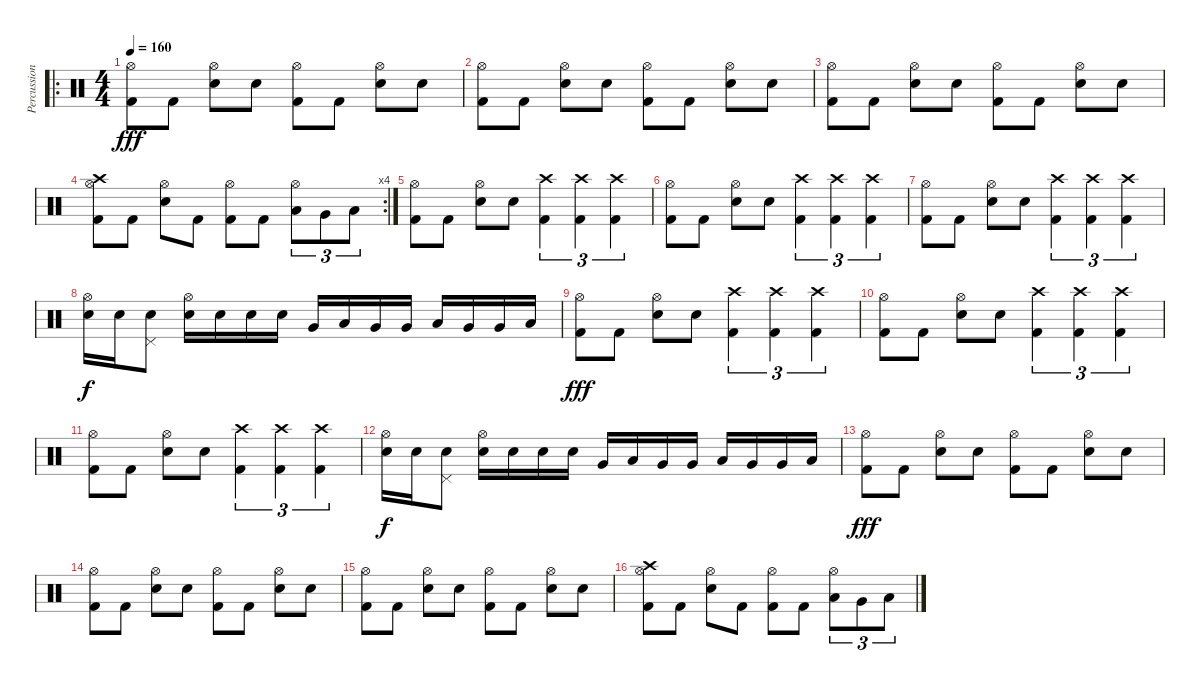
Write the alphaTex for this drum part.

\track ("Percussion" "Percussion") {instrument percussion}
\staff {score}
\articulation defaults
\ro
\ts (4 4)
\tempo 160
\clef neutral
\ks c
("Kick (hit) 2" "Hi-Hat (open)").8{dy fff} "Kick (hit) 2".8 ("Snare (hit) 2" "Hi-Hat (open)").8 "Snare (hit) 2".8 ("Kick (hit) 2" "Hi-Hat (open)").8 "Kick (hit) 2".8 ("Snare (hit) 2" "Hi-Hat (open)").8 "Snare (hit) 2".8 |
("Kick (hit) 2" "Hi-Hat (open)").8 "Kick (hit) 2".8 ("Snare (hit) 2" "Hi-Hat (open)").8 "Snare (hit) 2".8 ("Kick (hit) 2" "Hi-Hat (open)").8 "Kick (hit) 2".8 ("Snare (hit) 2" "Hi-Hat (open)").8 "Snare (hit) 2".8 |
("Kick (hit) 2" "Hi-Hat (open)").8 "Kick (hit) 2".8 ("Snare (hit) 2" "Hi-Hat (open)").8 "Snare (hit) 2".8 ("Kick (hit) 2" "Hi-Hat (open)").8 "Kick (hit) 2".8 ("Snare (hit) 2" "Hi-Hat (open)").8 "Snare (hit) 2".8 |
\rc 4
("Kick (hit) 2" "Hi-Hat (open)" "Crash high (hit)").8 "Kick (hit) 2".8 ("Snare (hit) 2" "Hi-Hat (open)").8 "Kick (hit) 2".8 ("Kick (hit) 2" "Hi-Hat (open)").8 "Kick (hit) 2".8 ("Low Tom (hit)" "Hi-Hat (open)").8{tu (3 2)} "Very Low Tom (hit)".8{tu (3 2)} "Low Floor Tom (hit)".8{tu (3 2)} |
("Kick (hit) 2" "Hi-Hat (open)").8 "Kick (hit) 2".8 ("Snare (hit) 2" "Hi-Hat (open)").8 "Snare (hit) 2".8 ("Kick (hit) 2" "Crash high (hit)").4{tu (3 2)} ("Kick (hit) 2" "Crash high (hit)").4{tu (3 2)} ("Kick (hit) 2" "Crash high (hit)").4{tu (3 2)} |
("Kick (hit) 2" "Hi-Hat (open)").8 "Kick (hit) 2".8 ("Snare (hit) 2" "Hi-Hat (open)").8 "Snare (hit) 2".8 ("Kick (hit) 2" "Crash high (hit)").4{tu (3 2)} ("Kick (hit) 2" "Crash high (hit)").4{tu (3 2)} ("Kick (hit) 2" "Crash high (hit)").4{tu (3 2)} |
("Kick (hit) 2" "Hi-Hat (open)").8 "Kick (hit) 2".8 ("Snare (hit) 2" "Hi-Hat (open)").8 "Snare (hit) 2".8 ("Kick (hit) 2" "Crash high (hit)").4{tu (3 2)} ("Kick (hit) 2" "Crash high (hit)").4{tu (3 2)} ("Kick (hit) 2" "Crash high (hit)").4{tu (3 2)} |
("Hi-Hat (open)" "Electric Snare (hit)").16{dy f} "Electric Snare (hit)".16 ("Pedal Hi-Hat (hit)" "Electric Snare (hit)").8 ("Hi-Hat (open)" "Electric Snare (hit)").16 "Electric Snare (hit)".16 "Electric Snare (hit)".16 "Electric Snare (hit)".16 "Very Low Tom (hit)".16 "Low Tom (hit)".16 "Very Low Tom (hit)".16 "Very Low Tom (hit)".16 "Low Tom (hit)".16 "Very Low Tom (hit)".16 "Very Low Tom (hit)".16 "Low Tom (hit)".16 |
("Kick (hit) 2" "Hi-Hat (open)").8{dy fff} "Kick (hit) 2".8 ("Snare (hit) 2" "Hi-Hat (open)").8 "Snare (hit) 2".8 ("Kick (hit) 2" "Crash high (hit)").4{tu (3 2)} ("Kick (hit) 2" "Crash high (hit)").4{tu (3 2)} ("Kick (hit) 2" "Crash high (hit)").4{tu (3 2)} |
("Kick (hit) 2" "Hi-Hat (open)").8 "Kick (hit) 2".8 ("Snare (hit) 2" "Hi-Hat (open)").8 "Snare (hit) 2".8 ("Kick (hit) 2" "Crash high (hit)").4{tu (3 2)} ("Kick (hit) 2" "Crash high (hit)").4{tu (3 2)} ("Kick (hit) 2" "Crash high (hit)").4{tu (3 2)} |
("Kick (hit) 2" "Hi-Hat (open)").8 "Kick (hit) 2".8 ("Snare (hit) 2" "Hi-Hat (open)").8 "Snare (hit) 2".8 ("Kick (hit) 2" "Crash high (hit)").4{tu (3 2)} ("Kick (hit) 2" "Crash high (hit)").4{tu (3 2)} ("Kick (hit) 2" "Crash high (hit)").4{tu (3 2)} |
("Hi-Hat (open)" "Electric Snare (hit)").16{dy f} "Electric Snare (hit)".16 ("Pedal Hi-Hat (hit)" "Electric Snare (hit)").8 ("Hi-Hat (open)" "Electric Snare (hit)").16 "Electric Snare (hit)".16 "Electric Snare (hit)".16 "Electric Snare (hit)".16 "Very Low Tom (hit)".16 "Low Tom (hit)".16 "Very Low Tom (hit)".16 "Very Low Tom (hit)".16 "Low Tom (hit)".16 "Very Low Tom (hit)".16 "Very Low Tom (hit)".16 "Low Tom (hit)".16 |
("Kick (hit) 2" "Hi-Hat (open)").8{dy fff} "Kick (hit) 2".8 ("Snare (hit) 2" "Hi-Hat (open)").8 "Snare (hit) 2".8 ("Kick (hit) 2" "Hi-Hat (open)").8 "Kick (hit) 2".8 ("Snare (hit) 2" "Hi-Hat (open)").8 "Snare (hit) 2".8 |
("Kick (hit) 2" "Hi-Hat (open)").8 "Kick (hit) 2".8 ("Snare (hit) 2" "Hi-Hat (open)").8 "Snare (hit) 2".8 ("Kick (hit) 2" "Hi-Hat (open)").8 "Kick (hit) 2".8 ("Snare (hit) 2" "Hi-Hat (open)").8 "Snare (hit) 2".8 |
("Kick (hit) 2" "Hi-Hat (open)").8 "Kick (hit) 2".8 ("Snare (hit) 2" "Hi-Hat (open)").8 "Snare (hit) 2".8 ("Kick (hit) 2" "Hi-Hat (open)").8 "Kick (hit) 2".8 ("Snare (hit) 2" "Hi-Hat (open)").8 "Snare (hit) 2".8 |
("Kick (hit) 2" "Hi-Hat (open)" "Crash high (hit)").8 "Kick (hit) 2".8 ("Snare (hit) 2" "Hi-Hat (open)").8 "Kick (hit) 2".8 ("Kick (hit) 2" "Hi-Hat (open)").8 "Kick (hit) 2".8 ("Low Tom (hit)" "Hi-Hat (open)").8{tu (3 2)} "Very Low Tom (hit)".8{tu (3 2)} "Low Floor Tom (hit)".8{tu (3 2)}
